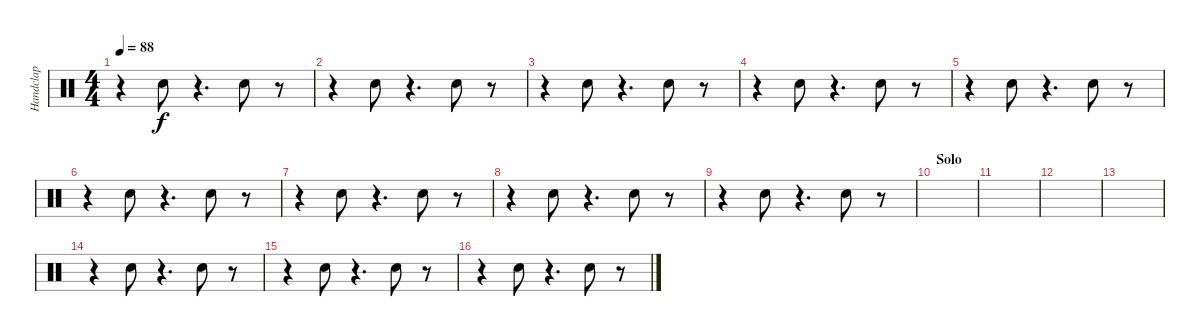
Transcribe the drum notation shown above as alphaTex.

\track ("Handclap" "Handclap") {instrument percussion}
\staff {score}
\articulation defaults
\ts (4 4)
\tempo 88
\clef neutral
\ks c
r.4{dy f} "Hand Clap (hit)".8 r.4{d} "Hand Clap (hit)".8 r.8 |
r.4 "Hand Clap (hit)".8 r.4{d} "Hand Clap (hit)".8 r.8 |
r.4 "Hand Clap (hit)".8 r.4{d} "Hand Clap (hit)".8 r.8 |
r.4 "Hand Clap (hit)".8 r.4{d} "Hand Clap (hit)".8 r.8 |
r.4 "Hand Clap (hit)".8 r.4{d} "Hand Clap (hit)".8 r.8 |
r.4 "Hand Clap (hit)".8 r.4{d} "Hand Clap (hit)".8 r.8 |
r.4 "Hand Clap (hit)".8 r.4{d} "Hand Clap (hit)".8 r.8 |
r.4 "Hand Clap (hit)".8 r.4{d} "Hand Clap (hit)".8 r.8 |
r.4 "Hand Clap (hit)".8 r.4{d} "Hand Clap (hit)".8 r.8 |
\section ("" "Solo")
|
|
|
|
r.4 "Hand Clap (hit)".8 r.4{d} "Hand Clap (hit)".8 r.8 |
r.4 "Hand Clap (hit)".8 r.4{d} "Hand Clap (hit)".8 r.8 |
r.4 "Hand Clap (hit)".8 r.4{d} "Hand Clap (hit)".8 r.8
